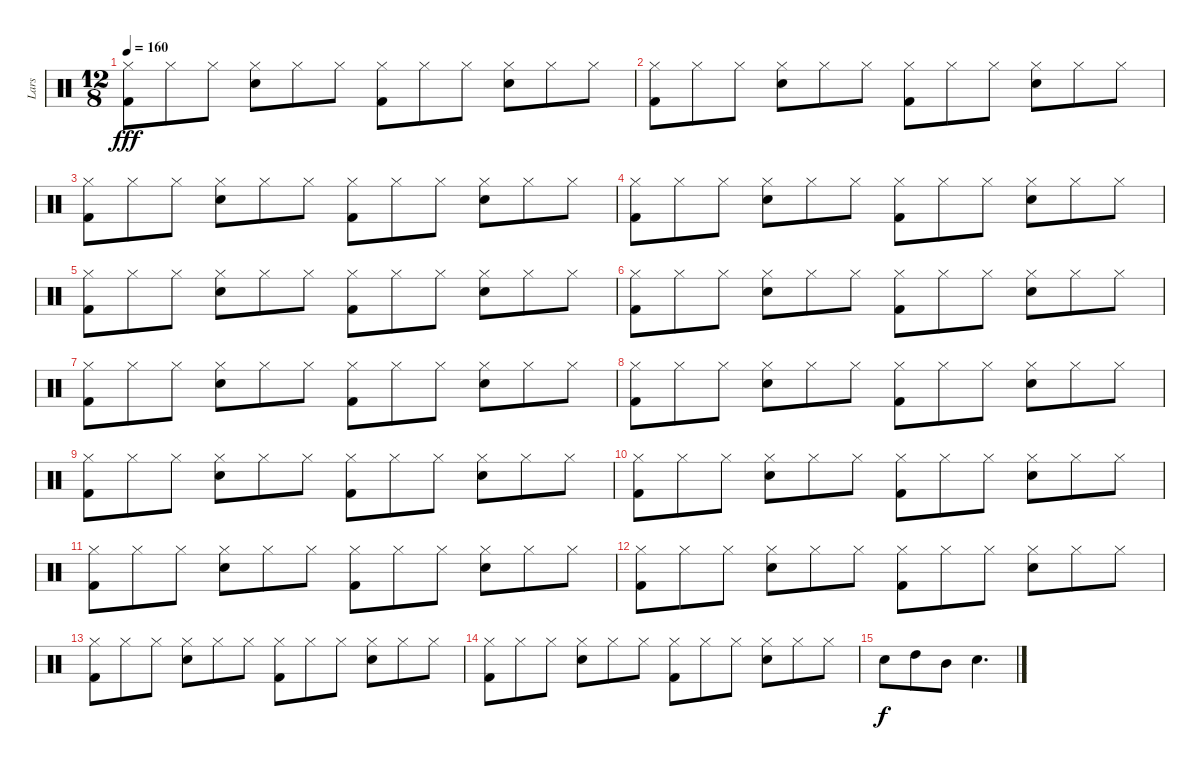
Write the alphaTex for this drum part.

\track ("Lars" "Lars") {instrument percussion}
\staff {score}
\articulation defaults
\ts (12 8)
\tempo 160
\clef neutral
\ks c
("Hi-Hat (closed)" "Kick (hit) 2").8{dy fff} "Hi-Hat (closed)".8 "Hi-Hat (closed)".8 ("Hi-Hat (closed)" "Electric Snare (hit)").8 "Hi-Hat (closed)".8 "Hi-Hat (closed)".8 ("Hi-Hat (closed)" "Kick (hit) 2").8 "Hi-Hat (closed)".8 "Hi-Hat (closed)".8 ("Hi-Hat (closed)" "Electric Snare (hit)").8 "Hi-Hat (closed)".8 "Hi-Hat (closed)".8 |
("Hi-Hat (closed)" "Kick (hit) 2").8 "Hi-Hat (closed)".8 "Hi-Hat (closed)".8 ("Hi-Hat (closed)" "Electric Snare (hit)").8 "Hi-Hat (closed)".8 "Hi-Hat (closed)".8 ("Hi-Hat (closed)" "Kick (hit) 2").8 "Hi-Hat (closed)".8 "Hi-Hat (closed)".8 ("Hi-Hat (closed)" "Electric Snare (hit)").8 "Hi-Hat (closed)".8 "Hi-Hat (closed)".8 |
("Hi-Hat (closed)" "Kick (hit) 2").8 "Hi-Hat (closed)".8 "Hi-Hat (closed)".8 ("Hi-Hat (closed)" "Electric Snare (hit)").8 "Hi-Hat (closed)".8 "Hi-Hat (closed)".8 ("Hi-Hat (closed)" "Kick (hit) 2").8 "Hi-Hat (closed)".8 "Hi-Hat (closed)".8 ("Hi-Hat (closed)" "Electric Snare (hit)").8 "Hi-Hat (closed)".8 "Hi-Hat (closed)".8 |
("Hi-Hat (closed)" "Kick (hit) 2").8 "Hi-Hat (closed)".8 "Hi-Hat (closed)".8 ("Hi-Hat (closed)" "Electric Snare (hit)").8 "Hi-Hat (closed)".8 "Hi-Hat (closed)".8 ("Hi-Hat (closed)" "Kick (hit) 2").8 "Hi-Hat (closed)".8 "Hi-Hat (closed)".8 ("Hi-Hat (closed)" "Electric Snare (hit)").8 "Hi-Hat (closed)".8 "Hi-Hat (closed)".8 |
("Hi-Hat (closed)" "Kick (hit) 2").8 "Hi-Hat (closed)".8 "Hi-Hat (closed)".8 ("Hi-Hat (closed)" "Electric Snare (hit)").8 "Hi-Hat (closed)".8 "Hi-Hat (closed)".8 ("Hi-Hat (closed)" "Kick (hit) 2").8 "Hi-Hat (closed)".8 "Hi-Hat (closed)".8 ("Hi-Hat (closed)" "Electric Snare (hit)").8 "Hi-Hat (closed)".8 "Hi-Hat (closed)".8 |
("Hi-Hat (closed)" "Kick (hit) 2").8 "Hi-Hat (closed)".8 "Hi-Hat (closed)".8 ("Hi-Hat (closed)" "Electric Snare (hit)").8 "Hi-Hat (closed)".8 "Hi-Hat (closed)".8 ("Hi-Hat (closed)" "Kick (hit) 2").8 "Hi-Hat (closed)".8 "Hi-Hat (closed)".8 ("Hi-Hat (closed)" "Electric Snare (hit)").8 "Hi-Hat (closed)".8 "Hi-Hat (closed)".8 |
("Hi-Hat (closed)" "Kick (hit) 2").8 "Hi-Hat (closed)".8 "Hi-Hat (closed)".8 ("Hi-Hat (closed)" "Electric Snare (hit)").8 "Hi-Hat (closed)".8 "Hi-Hat (closed)".8 ("Hi-Hat (closed)" "Kick (hit) 2").8 "Hi-Hat (closed)".8 "Hi-Hat (closed)".8 ("Hi-Hat (closed)" "Electric Snare (hit)").8 "Hi-Hat (closed)".8 "Hi-Hat (closed)".8 |
("Hi-Hat (closed)" "Kick (hit) 2").8 "Hi-Hat (closed)".8 "Hi-Hat (closed)".8 ("Hi-Hat (closed)" "Electric Snare (hit)").8 "Hi-Hat (closed)".8 "Hi-Hat (closed)".8 ("Hi-Hat (closed)" "Kick (hit) 2").8 "Hi-Hat (closed)".8 "Hi-Hat (closed)".8 ("Hi-Hat (closed)" "Electric Snare (hit)").8 "Hi-Hat (closed)".8 "Hi-Hat (closed)".8 |
("Hi-Hat (closed)" "Kick (hit) 2").8 "Hi-Hat (closed)".8 "Hi-Hat (closed)".8 ("Hi-Hat (closed)" "Electric Snare (hit)").8 "Hi-Hat (closed)".8 "Hi-Hat (closed)".8 ("Hi-Hat (closed)" "Kick (hit) 2").8 "Hi-Hat (closed)".8 "Hi-Hat (closed)".8 ("Hi-Hat (closed)" "Electric Snare (hit)").8 "Hi-Hat (closed)".8 "Hi-Hat (closed)".8 |
("Hi-Hat (closed)" "Kick (hit) 2").8 "Hi-Hat (closed)".8 "Hi-Hat (closed)".8 ("Hi-Hat (closed)" "Electric Snare (hit)").8 "Hi-Hat (closed)".8 "Hi-Hat (closed)".8 ("Hi-Hat (closed)" "Kick (hit) 2").8 "Hi-Hat (closed)".8 "Hi-Hat (closed)".8 ("Hi-Hat (closed)" "Electric Snare (hit)").8 "Hi-Hat (closed)".8 "Hi-Hat (closed)".8 |
("Hi-Hat (closed)" "Kick (hit) 2").8 "Hi-Hat (closed)".8 "Hi-Hat (closed)".8 ("Hi-Hat (closed)" "Electric Snare (hit)").8 "Hi-Hat (closed)".8 "Hi-Hat (closed)".8 ("Hi-Hat (closed)" "Kick (hit) 2").8 "Hi-Hat (closed)".8 "Hi-Hat (closed)".8 ("Hi-Hat (closed)" "Electric Snare (hit)").8 "Hi-Hat (closed)".8 "Hi-Hat (closed)".8 |
("Hi-Hat (closed)" "Kick (hit) 2").8 "Hi-Hat (closed)".8 "Hi-Hat (closed)".8 ("Hi-Hat (closed)" "Electric Snare (hit)").8 "Hi-Hat (closed)".8 "Hi-Hat (closed)".8 ("Hi-Hat (closed)" "Kick (hit) 2").8 "Hi-Hat (closed)".8 "Hi-Hat (closed)".8 ("Hi-Hat (closed)" "Electric Snare (hit)").8 "Hi-Hat (closed)".8 "Hi-Hat (closed)".8 |
("Hi-Hat (closed)" "Kick (hit) 2").8 "Hi-Hat (closed)".8 "Hi-Hat (closed)".8 ("Hi-Hat (closed)" "Electric Snare (hit)").8 "Hi-Hat (closed)".8 "Hi-Hat (closed)".8 ("Hi-Hat (closed)" "Kick (hit) 2").8 "Hi-Hat (closed)".8 "Hi-Hat (closed)".8 ("Hi-Hat (closed)" "Electric Snare (hit)").8 "Hi-Hat (closed)".8 "Hi-Hat (closed)".8 |
("Hi-Hat (closed)" "Kick (hit) 2").8 "Hi-Hat (closed)".8 "Hi-Hat (closed)".8 ("Hi-Hat (closed)" "Electric Snare (hit)").8 "Hi-Hat (closed)".8 "Hi-Hat (closed)".8 ("Hi-Hat (closed)" "Kick (hit) 2").8 "Hi-Hat (closed)".8 "Hi-Hat (closed)".8 ("Hi-Hat (closed)" "Electric Snare (hit)").8 "Hi-Hat (closed)".8 "Hi-Hat (closed)".8 |
"Electric Snare (hit)".8{dy f} "High Tom (hit)".8 "Mid Tom (hit)".8 "Electric Snare (hit)".4{d}
